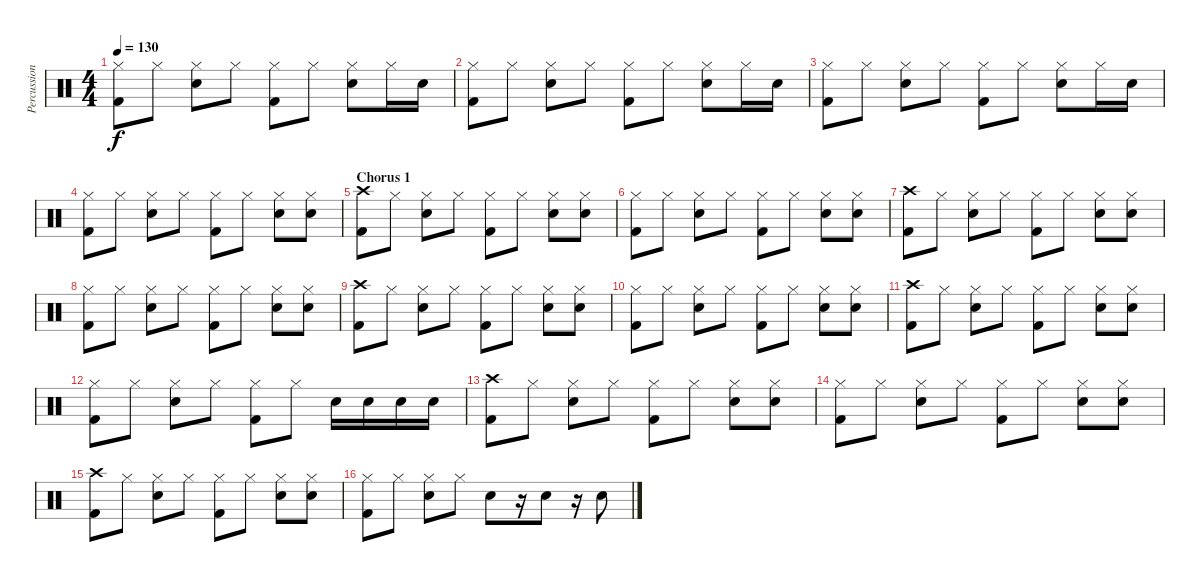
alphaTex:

\track ("Percussion" "Percussion") {instrument percussion}
\staff {score}
\articulation defaults
\ts (4 4)
\tempo 130
\clef neutral
\ks c
("Hi-Hat (closed)" "Kick (hit) 2").8{dy f} "Hi-Hat (closed)".8 ("Hi-Hat (closed)" "Electric Snare (hit)").8 "Hi-Hat (closed)".8 ("Hi-Hat (closed)" "Kick (hit) 2").8 "Hi-Hat (closed)".8 ("Hi-Hat (closed)" "Electric Snare (hit)").8 "Hi-Hat (closed)".16 "Electric Snare (hit)".16 |
("Hi-Hat (closed)" "Kick (hit) 2").8 "Hi-Hat (closed)".8 ("Hi-Hat (closed)" "Electric Snare (hit)").8 "Hi-Hat (closed)".8 ("Hi-Hat (closed)" "Kick (hit) 2").8 "Hi-Hat (closed)".8 ("Hi-Hat (closed)" "Electric Snare (hit)").8 "Hi-Hat (closed)".16 "Electric Snare (hit)".16 |
("Hi-Hat (closed)" "Kick (hit) 2").8 "Hi-Hat (closed)".8 ("Hi-Hat (closed)" "Electric Snare (hit)").8 "Hi-Hat (closed)".8 ("Hi-Hat (closed)" "Kick (hit) 2").8 "Hi-Hat (closed)".8 ("Hi-Hat (closed)" "Electric Snare (hit)").8 "Hi-Hat (closed)".16 "Electric Snare (hit)".16 |
("Hi-Hat (closed)" "Kick (hit) 2").8 "Hi-Hat (closed)".8 ("Hi-Hat (closed)" "Electric Snare (hit)").8 "Hi-Hat (closed)".8 ("Hi-Hat (closed)" "Kick (hit) 2").8 "Hi-Hat (closed)".8 ("Hi-Hat (closed)" "Electric Snare (hit)").8 ("Hi-Hat (closed)" "Electric Snare (hit)").8 |
\section ("" "Chorus 1")
("Crash high (hit)" "Kick (hit) 2").8 "Hi-Hat (closed)".8 ("Hi-Hat (closed)" "Electric Snare (hit)").8 "Hi-Hat (closed)".8 ("Hi-Hat (closed)" "Kick (hit) 2").8 "Hi-Hat (closed)".8 ("Hi-Hat (closed)" "Electric Snare (hit)").8 ("Hi-Hat (closed)" "Electric Snare (hit)").8 |
("Hi-Hat (closed)" "Kick (hit) 2").8 "Hi-Hat (closed)".8 ("Hi-Hat (closed)" "Electric Snare (hit)").8 "Hi-Hat (closed)".8 ("Hi-Hat (closed)" "Kick (hit) 2").8 "Hi-Hat (closed)".8 ("Hi-Hat (closed)" "Electric Snare (hit)").8 ("Hi-Hat (closed)" "Electric Snare (hit)").8 |
("Crash high (hit)" "Kick (hit) 2").8 "Hi-Hat (closed)".8 ("Hi-Hat (closed)" "Electric Snare (hit)").8 "Hi-Hat (closed)".8 ("Hi-Hat (closed)" "Kick (hit) 2").8 "Hi-Hat (closed)".8 ("Hi-Hat (closed)" "Electric Snare (hit)").8 ("Hi-Hat (closed)" "Electric Snare (hit)").8 |
("Hi-Hat (closed)" "Kick (hit) 2").8 "Hi-Hat (closed)".8 ("Hi-Hat (closed)" "Electric Snare (hit)").8 "Hi-Hat (closed)".8 ("Hi-Hat (closed)" "Kick (hit) 2").8 "Hi-Hat (closed)".8 ("Hi-Hat (closed)" "Electric Snare (hit)").8 ("Hi-Hat (closed)" "Electric Snare (hit)").8 |
("Crash high (hit)" "Kick (hit) 2").8 "Hi-Hat (closed)".8 ("Hi-Hat (closed)" "Electric Snare (hit)").8 "Hi-Hat (closed)".8 ("Hi-Hat (closed)" "Kick (hit) 2").8 "Hi-Hat (closed)".8 ("Hi-Hat (closed)" "Electric Snare (hit)").8 ("Hi-Hat (closed)" "Electric Snare (hit)").8 |
("Hi-Hat (closed)" "Kick (hit) 2").8 "Hi-Hat (closed)".8 ("Hi-Hat (closed)" "Electric Snare (hit)").8 "Hi-Hat (closed)".8 ("Hi-Hat (closed)" "Kick (hit) 2").8 "Hi-Hat (closed)".8 ("Hi-Hat (closed)" "Electric Snare (hit)").8 ("Hi-Hat (closed)" "Electric Snare (hit)").8 |
("Crash high (hit)" "Kick (hit) 2").8 "Hi-Hat (closed)".8 ("Hi-Hat (closed)" "Electric Snare (hit)").8 "Hi-Hat (closed)".8 ("Hi-Hat (closed)" "Kick (hit) 2").8 "Hi-Hat (closed)".8 ("Hi-Hat (closed)" "Electric Snare (hit)").8 ("Hi-Hat (closed)" "Electric Snare (hit)").8 |
("Hi-Hat (closed)" "Kick (hit) 2").8 "Hi-Hat (closed)".8 ("Hi-Hat (closed)" "Electric Snare (hit)").8 "Hi-Hat (closed)".8 ("Hi-Hat (closed)" "Kick (hit) 2").8 "Hi-Hat (closed)".8 "Electric Snare (hit)".16 "Electric Snare (hit)".16 "Electric Snare (hit)".16 "Electric Snare (hit)".16 |
("Crash high (hit)" "Kick (hit) 2").8 "Hi-Hat (closed)".8 ("Hi-Hat (closed)" "Electric Snare (hit)").8 "Hi-Hat (closed)".8 ("Hi-Hat (closed)" "Kick (hit) 2").8 "Hi-Hat (closed)".8 ("Hi-Hat (closed)" "Electric Snare (hit)").8 ("Hi-Hat (closed)" "Electric Snare (hit)").8 |
("Hi-Hat (closed)" "Kick (hit) 2").8 "Hi-Hat (closed)".8 ("Hi-Hat (closed)" "Electric Snare (hit)").8 "Hi-Hat (closed)".8 ("Hi-Hat (closed)" "Kick (hit) 2").8 "Hi-Hat (closed)".8 ("Hi-Hat (closed)" "Electric Snare (hit)").8 ("Hi-Hat (closed)" "Electric Snare (hit)").8 |
("Crash high (hit)" "Kick (hit) 2").8 "Hi-Hat (closed)".8 ("Hi-Hat (closed)" "Electric Snare (hit)").8 "Hi-Hat (closed)".8 ("Hi-Hat (closed)" "Kick (hit) 2").8 "Hi-Hat (closed)".8 ("Hi-Hat (closed)" "Electric Snare (hit)").8 ("Hi-Hat (closed)" "Electric Snare (hit)").8 |
("Hi-Hat (closed)" "Kick (hit) 2").8 "Hi-Hat (closed)".8 ("Hi-Hat (closed)" "Electric Snare (hit)").8 "Hi-Hat (closed)".8 "Electric Snare (hit)".8 r.16 "Electric Snare (hit)".8 r.16 "Electric Snare (hit)".8
